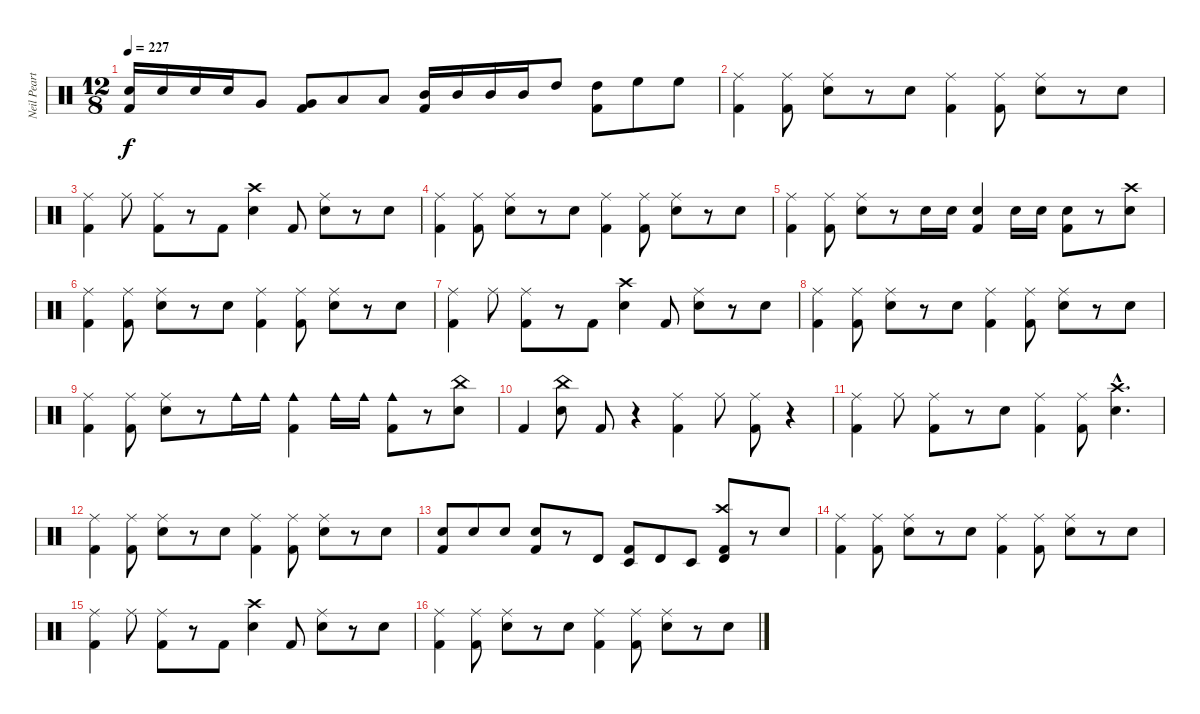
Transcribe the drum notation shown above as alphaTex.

\track ("Neil Peart" "Neil Peart") {instrument percussion}
\staff {score}
\articulation defaults
\ts (12 8)
\tempo 227
\clef neutral
\ks c
("Electric Snare (hit)" "Kick (hit) 2").16{dy f} "Electric Snare (hit)".16 "Electric Snare (hit)".16 "Electric Snare (hit)".16 "Very Low Tom (hit)".8 ("Kick (hit) 2" "Very Low Tom (hit)").8 "Low Tom (hit)".8 "Low Tom (hit)".8 ("Kick (hit) 2" "Mid Tom (hit)").16 "Mid Tom (hit)".16 "Mid Tom (hit)".16 "Mid Tom (hit)".16 "High Tom (hit)".8 ("Kick (hit) 2" "High Tom (hit)").8 "High Floor Tom (hit)".8 "High Floor Tom (hit)".8 |
("Ride (middle)" "Kick (hit) 2").4 ("Ride (middle)" "Kick (hit) 2").8 ("Electric Snare (hit)" "Ride (middle)").8 r.8 "Electric Snare (hit)".8 ("Ride (middle)" "Kick (hit) 2").4 ("Ride (middle)" "Kick (hit) 2").8 ("Electric Snare (hit)" "Ride (middle)").8 r.8 "Electric Snare (hit)".8 |
("Ride (middle)" "Kick (hit) 2").4 "Ride (middle)".8 ("Ride (middle)" "Kick (hit) 2").8 r.8 "Kick (hit) 2".8 ("Electric Snare (hit)" "Crash high (hit)").4 "Kick (hit) 2".8 ("Electric Snare (hit)" "Ride (middle)").8 r.8 "Electric Snare (hit)".8 |
("Ride (middle)" "Kick (hit) 2").4 ("Ride (middle)" "Kick (hit) 2").8 ("Electric Snare (hit)" "Ride (middle)").8 r.8 "Electric Snare (hit)".8 ("Ride (middle)" "Kick (hit) 2").4 ("Ride (middle)" "Kick (hit) 2").8 ("Electric Snare (hit)" "Ride (middle)").8 r.8 "Electric Snare (hit)".8 |
("Ride (middle)" "Kick (hit) 2").4 ("Ride (middle)" "Kick (hit) 2").8 ("Electric Snare (hit)" "Ride (middle)").8 r.8 "Electric Snare (hit)".16 "Electric Snare (hit)".16 ("Electric Snare (hit)" "Kick (hit) 2").4 "Electric Snare (hit)".16 "Electric Snare (hit)".16 ("Electric Snare (hit)" "Kick (hit) 2").8 r.8 ("Electric Snare (hit)" "Crash high (hit)").8 |
("Ride (middle)" "Kick (hit) 2").4 ("Ride (middle)" "Kick (hit) 2").8 ("Electric Snare (hit)" "Ride (middle)").8 r.8 "Electric Snare (hit)".8 ("Ride (middle)" "Kick (hit) 2").4 ("Ride (middle)" "Kick (hit) 2").8 ("Electric Snare (hit)" "Ride (middle)").8 r.8 "Electric Snare (hit)".8 |
("Ride (middle)" "Kick (hit) 2").4 "Ride (middle)".8 ("Ride (middle)" "Kick (hit) 2").8 r.8 "Kick (hit) 2".8 ("Electric Snare (hit)" "Crash high (hit)").4 "Kick (hit) 2".8 ("Electric Snare (hit)" "Ride (middle)").8 r.8 "Electric Snare (hit)".8 |
("Ride (middle)" "Kick (hit) 2").4 ("Ride (middle)" "Kick (hit) 2").8 ("Electric Snare (hit)" "Ride (middle)").8 r.8 "Electric Snare (hit)".8 ("Ride (middle)" "Kick (hit) 2").4 ("Ride (middle)" "Kick (hit) 2").8 ("Electric Snare (hit)" "Ride (middle)").8 r.8 "Electric Snare (hit)".8 |
("Ride (middle)" "Kick (hit) 2").4 ("Ride (middle)" "Kick (hit) 2").8 ("Electric Snare (hit)" "Ride (middle)").8 r.8 "Cowbell medium (hit)".16 "Cowbell medium (hit)".16 ("Kick (hit) 2" "Cowbell medium (hit)").4 "Cowbell medium (hit)".16 "Cowbell medium (hit)".16 ("Kick (hit) 2" "Cowbell medium (hit)").8 r.8 ("Electric Snare (hit)" "China (hit)").8 |
"Kick (hit) 2".4 ("Electric Snare (hit)" "China (hit)").8 "Kick (hit) 2".8 r.4 ("Ride (middle)" "Kick (hit) 2").4 "Ride (middle)".8 ("Ride (middle)" "Kick (hit) 2").8 r.4 |
("Ride (middle)" "Kick (hit) 2").4 "Ride (middle)".8 ("Ride (middle)" "Kick (hit) 2").8 r.8 "Electric Snare (hit)".8 ("Ride (middle)" "Kick (hit) 2").4 ("Ride (middle)" "Kick (hit) 2").8 ("Electric Snare (hit)"{hac} "Crash high (hit)"{hac}).4{d} |
("Ride (middle)" "Kick (hit) 2").4 ("Ride (middle)" "Kick (hit) 2").8 ("Electric Snare (hit)" "Ride (middle)").8 r.8 "Electric Snare (hit)".8 ("Ride (middle)" "Kick (hit) 2").4 ("Ride (middle)" "Kick (hit) 2").8 ("Electric Snare (hit)" "Ride (middle)").8 r.8 "Electric Snare (hit)".8 |
("Electric Snare (hit)" "Kick (hit) 2").8 "Electric Snare (hit)".8 "Electric Snare (hit)".8 ("Electric Snare (hit)" "Kick (hit) 2").8 r.8 "Timbale high (hit)".8 ("Kick (hit) 2" "Timbale low (hit)").8 "Timbale high (hit)".8 "Timbale low (hit)".8 ("Crash high (hit)" "Kick (hit) 2" "Timbale high (hit)").8 r.8 "Electric Snare (hit)".8 |
("Ride (middle)" "Kick (hit) 2").4 ("Ride (middle)" "Kick (hit) 2").8 ("Electric Snare (hit)" "Ride (middle)").8 r.8 "Electric Snare (hit)".8 ("Ride (middle)" "Kick (hit) 2").4 ("Ride (middle)" "Kick (hit) 2").8 ("Electric Snare (hit)" "Ride (middle)").8 r.8 "Electric Snare (hit)".8 |
("Ride (middle)" "Kick (hit) 2").4 "Ride (middle)".8 ("Ride (middle)" "Kick (hit) 2").8 r.8 "Kick (hit) 2".8 ("Electric Snare (hit)" "Crash high (hit)").4 "Kick (hit) 2".8 ("Electric Snare (hit)" "Ride (middle)").8 r.8 "Electric Snare (hit)".8 |
("Ride (middle)" "Kick (hit) 2").4 ("Ride (middle)" "Kick (hit) 2").8 ("Electric Snare (hit)" "Ride (middle)").8 r.8 "Electric Snare (hit)".8 ("Ride (middle)" "Kick (hit) 2").4 ("Ride (middle)" "Kick (hit) 2").8 ("Electric Snare (hit)" "Ride (middle)").8 r.8 "Electric Snare (hit)".8
